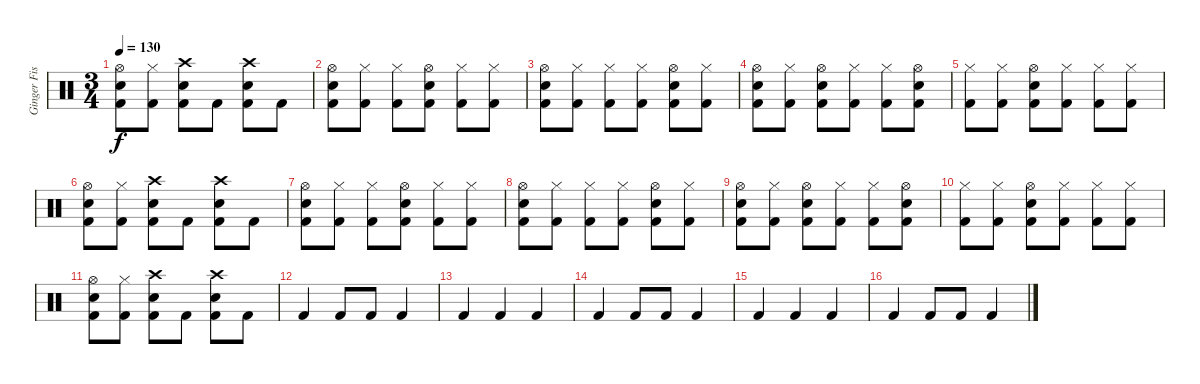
\track ("Ginger Fish" "Ginger Fis") {instrument percussion}
\staff {score}
\articulation defaults
\ts (3 4)
\tempo 130
\clef neutral
\ks c
("Hi-Hat (open)" "Snare (hit) 2" "Kick (hit) 2").8{dy f} ("Hi-Hat (closed)" "Kick (hit) 2").8 ("Crash high (hit)" "Snare (hit) 2" "Kick (hit) 2").8 "Kick (hit) 2".8 ("Crash high (hit)" "Snare (hit) 2" "Kick (hit) 2").8 "Kick (hit) 2".8 |
("Hi-Hat (open)" "Snare (hit) 2" "Kick (hit) 2").8 ("Hi-Hat (closed)" "Kick (hit) 2").8 ("Hi-Hat (closed)" "Kick (hit) 2").8 ("Hi-Hat (open)" "Snare (hit) 2" "Kick (hit) 2").8 ("Hi-Hat (closed)" "Kick (hit) 2").8 ("Hi-Hat (closed)" "Kick (hit) 2").8 |
("Hi-Hat (open)" "Snare (hit) 2" "Kick (hit) 2").8 ("Hi-Hat (closed)" "Kick (hit) 2").8 ("Hi-Hat (closed)" "Kick (hit) 2").8 ("Hi-Hat (closed)" "Kick (hit) 2").8 ("Hi-Hat (open)" "Snare (hit) 2" "Kick (hit) 2").8 ("Hi-Hat (closed)" "Kick (hit) 2").8 |
("Hi-Hat (open)" "Snare (hit) 2" "Kick (hit) 2").8 ("Hi-Hat (closed)" "Kick (hit) 2").8 ("Hi-Hat (open)" "Snare (hit) 2" "Kick (hit) 2").8 ("Hi-Hat (closed)" "Kick (hit) 2").8 ("Hi-Hat (closed)" "Kick (hit) 2").8 ("Hi-Hat (open)" "Snare (hit) 2" "Kick (hit) 2").8 |
("Hi-Hat (closed)" "Kick (hit) 2").8 ("Hi-Hat (closed)" "Kick (hit) 2").8 ("Hi-Hat (open)" "Snare (hit) 2" "Kick (hit) 2").8 ("Hi-Hat (closed)" "Kick (hit) 2").8 ("Hi-Hat (closed)" "Kick (hit) 2").8 ("Hi-Hat (closed)" "Kick (hit) 2").8 |
("Hi-Hat (open)" "Snare (hit) 2" "Kick (hit) 2").8 ("Hi-Hat (closed)" "Kick (hit) 2").8 ("Crash high (hit)" "Snare (hit) 2" "Kick (hit) 2").8 "Kick (hit) 2".8 ("Crash high (hit)" "Snare (hit) 2" "Kick (hit) 2").8 "Kick (hit) 2".8 |
("Hi-Hat (open)" "Snare (hit) 2" "Kick (hit) 2").8 ("Hi-Hat (closed)" "Kick (hit) 2").8 ("Hi-Hat (closed)" "Kick (hit) 2").8 ("Hi-Hat (open)" "Snare (hit) 2" "Kick (hit) 2").8 ("Hi-Hat (closed)" "Kick (hit) 2").8 ("Hi-Hat (closed)" "Kick (hit) 2").8 |
("Hi-Hat (open)" "Snare (hit) 2" "Kick (hit) 2").8 ("Hi-Hat (closed)" "Kick (hit) 2").8 ("Hi-Hat (closed)" "Kick (hit) 2").8 ("Hi-Hat (closed)" "Kick (hit) 2").8 ("Hi-Hat (open)" "Snare (hit) 2" "Kick (hit) 2").8 ("Hi-Hat (closed)" "Kick (hit) 2").8 |
("Hi-Hat (open)" "Snare (hit) 2" "Kick (hit) 2").8 ("Hi-Hat (closed)" "Kick (hit) 2").8 ("Hi-Hat (open)" "Snare (hit) 2" "Kick (hit) 2").8 ("Hi-Hat (closed)" "Kick (hit) 2").8 ("Hi-Hat (closed)" "Kick (hit) 2").8 ("Hi-Hat (open)" "Snare (hit) 2" "Kick (hit) 2").8 |
("Hi-Hat (closed)" "Kick (hit) 2").8 ("Hi-Hat (closed)" "Kick (hit) 2").8 ("Hi-Hat (open)" "Snare (hit) 2" "Kick (hit) 2").8 ("Hi-Hat (closed)" "Kick (hit) 2").8 ("Hi-Hat (closed)" "Kick (hit) 2").8 ("Hi-Hat (closed)" "Kick (hit) 2").8 |
("Hi-Hat (open)" "Snare (hit) 2" "Kick (hit) 2").8 ("Hi-Hat (closed)" "Kick (hit) 2").8 ("Crash high (hit)" "Snare (hit) 2" "Kick (hit) 2").8 "Kick (hit) 2".8 ("Crash high (hit)" "Snare (hit) 2" "Kick (hit) 2").8 "Kick (hit) 2".8 |
"Kick (hit) 2".4 "Kick (hit) 2".8 "Kick (hit) 2".8 "Kick (hit) 2".4 |
"Kick (hit) 2".4 "Kick (hit) 2".4 "Kick (hit) 2".4 |
"Kick (hit) 2".4 "Kick (hit) 2".8 "Kick (hit) 2".8 "Kick (hit) 2".4 |
"Kick (hit) 2".4 "Kick (hit) 2".4 "Kick (hit) 2".4 |
"Kick (hit) 2".4 "Kick (hit) 2".8 "Kick (hit) 2".8 "Kick (hit) 2".4
